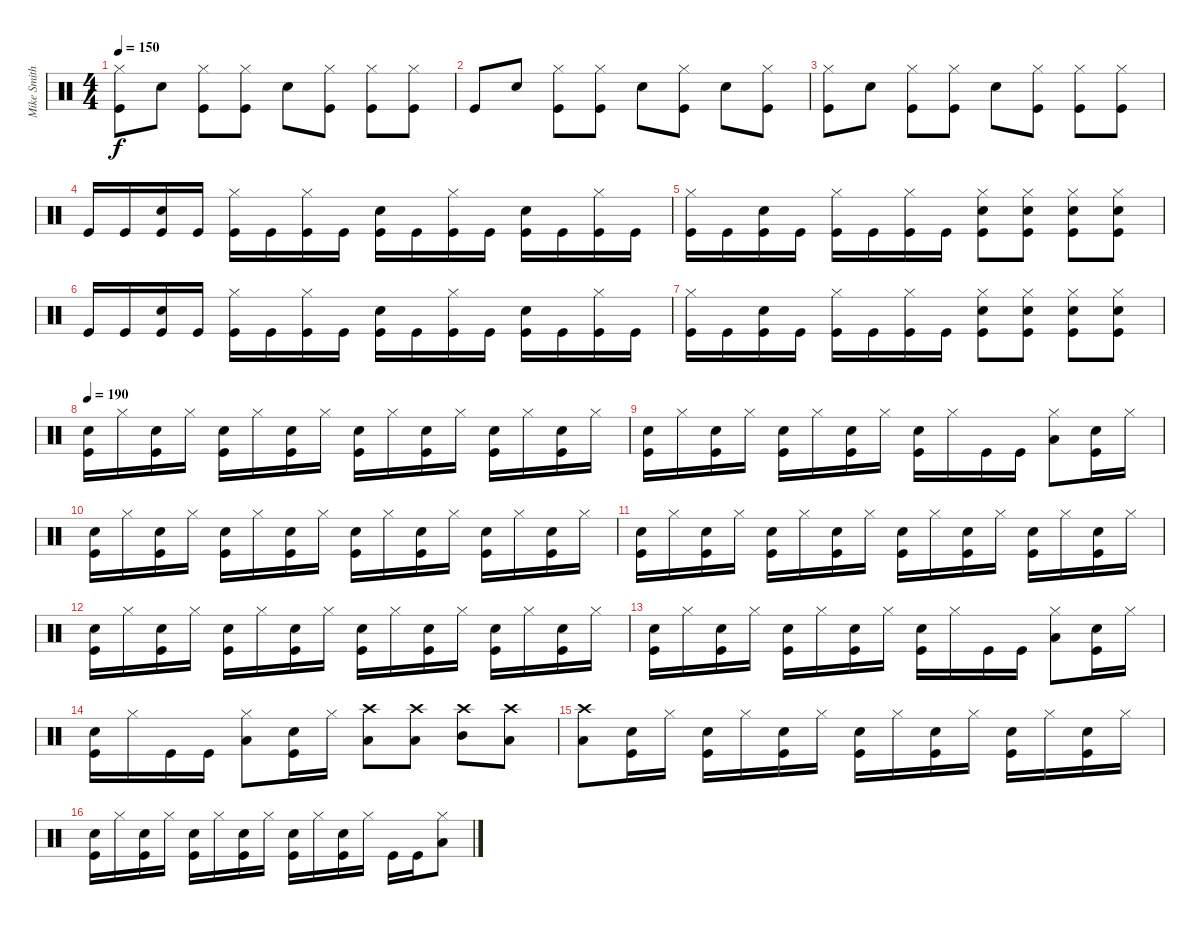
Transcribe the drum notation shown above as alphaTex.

\track ("Mike Smith" "Mike Smith") {instrument percussion}
\staff
\articulation defaults
\ts (4 4)
\tempo 150
\clef neutral
\ks c
("Hi-Hat (closed)" "Kick (hit)").8{dy f} "Snare (hit) 2".8 ("Hi-Hat (closed)" "Kick (hit)").8 ("Hi-Hat (closed)" "Kick (hit)").8 "Snare (hit) 2".8 ("Hi-Hat (closed)" "Kick (hit)").8 ("Hi-Hat (closed)" "Kick (hit)").8 ("Hi-Hat (closed)" "Kick (hit)").8 |
"Kick (hit)".8 "Snare (hit) 2".8 ("Hi-Hat (closed)" "Kick (hit)").8 ("Hi-Hat (closed)" "Kick (hit)").8 "Snare (hit) 2".8 ("Hi-Hat (closed)" "Kick (hit)").8 "Snare (hit) 2".8 ("Hi-Hat (closed)" "Kick (hit)").8 |
("Hi-Hat (closed)" "Kick (hit)").8 "Snare (hit) 2".8 ("Hi-Hat (closed)" "Kick (hit)").8 ("Hi-Hat (closed)" "Kick (hit)").8 "Snare (hit) 2".8 ("Hi-Hat (closed)" "Kick (hit)").8 ("Hi-Hat (closed)" "Kick (hit)").8 ("Hi-Hat (closed)" "Kick (hit)").8 |
"Kick (hit)".16 "Kick (hit)".16 ("Snare (hit) 2" "Kick (hit)").16 "Kick (hit)".16 ("Hi-Hat (closed)" "Kick (hit)").16 "Kick (hit)".16 ("Hi-Hat (closed)" "Kick (hit)").16 "Kick (hit)".16 ("Snare (hit) 2" "Kick (hit)").16 "Kick (hit)".16 ("Hi-Hat (closed)" "Kick (hit)").16 "Kick (hit)".16 ("Snare (hit) 2" "Kick (hit)").16 "Kick (hit)".16 ("Hi-Hat (closed)" "Kick (hit)").16 "Kick (hit)".16 |
("Hi-Hat (closed)" "Kick (hit)").16 "Kick (hit)".16 ("Snare (hit) 2" "Kick (hit)").16 "Kick (hit)".16 ("Hi-Hat (closed)" "Kick (hit)").16 "Kick (hit)".16 ("Hi-Hat (closed)" "Kick (hit)").16 "Kick (hit)".16 ("Hi-Hat (closed)" "Snare (hit) 2" "Kick (hit)").8 ("Hi-Hat (closed)" "Snare (hit) 2" "Kick (hit)").8 ("Hi-Hat (closed)" "Snare (hit) 2" "Kick (hit)").8 ("Hi-Hat (closed)" "Snare (hit) 2" "Kick (hit)").8 |
"Kick (hit)".16 "Kick (hit)".16 ("Snare (hit) 2" "Kick (hit)").16 "Kick (hit)".16 ("Hi-Hat (closed)" "Kick (hit)").16 "Kick (hit)".16 ("Hi-Hat (closed)" "Kick (hit)").16 "Kick (hit)".16 ("Snare (hit) 2" "Kick (hit)").16 "Kick (hit)".16 ("Hi-Hat (closed)" "Kick (hit)").16 "Kick (hit)".16 ("Snare (hit) 2" "Kick (hit)").16 "Kick (hit)".16 ("Hi-Hat (closed)" "Kick (hit)").16 "Kick (hit)".16 |
("Hi-Hat (closed)" "Kick (hit)").16 "Kick (hit)".16 ("Snare (hit) 2" "Kick (hit)").16 "Kick (hit)".16 ("Hi-Hat (closed)" "Kick (hit)").16 "Kick (hit)".16 ("Hi-Hat (closed)" "Kick (hit)").16 "Kick (hit)".16 ("Hi-Hat (closed)" "Snare (hit) 2" "Kick (hit)").8 ("Hi-Hat (closed)" "Snare (hit) 2" "Kick (hit)").8 ("Hi-Hat (closed)" "Snare (hit) 2" "Kick (hit)").8 ("Hi-Hat (closed)" "Snare (hit) 2" "Kick (hit)").8 |
\tempo 190
("Snare (hit) 2" "Kick (hit)").16 "Hi-Hat (closed)".16 ("Snare (hit) 2" "Kick (hit)").16 "Hi-Hat (closed)".16 ("Snare (hit) 2" "Kick (hit)").16 "Hi-Hat (closed)".16 ("Snare (hit) 2" "Kick (hit)").16 "Hi-Hat (closed)".16 ("Snare (hit) 2" "Kick (hit)").16 "Hi-Hat (closed)".16 ("Snare (hit) 2" "Kick (hit)").16 "Hi-Hat (closed)".16 ("Snare (hit) 2" "Kick (hit)").16 "Hi-Hat (closed)".16 ("Snare (hit) 2" "Kick (hit)").16 "Hi-Hat (closed)".16 |
("Snare (hit) 2" "Kick (hit)").16 "Hi-Hat (closed)".16 ("Snare (hit) 2" "Kick (hit)").16 "Hi-Hat (closed)".16 ("Snare (hit) 2" "Kick (hit)").16 "Hi-Hat (closed)".16 ("Snare (hit) 2" "Kick (hit)").16 "Hi-Hat (closed)".16 ("Snare (hit) 2" "Kick (hit)").16 "Hi-Hat (closed)".16 "Kick (hit)".16 "Kick (hit)".16 ("Hi-Hat (closed)" "Low Floor Tom (hit)").8 ("Snare (hit) 2" "Kick (hit)").16 "Hi-Hat (closed)".16 |
("Snare (hit) 2" "Kick (hit)").16 "Hi-Hat (closed)".16 ("Snare (hit) 2" "Kick (hit)").16 "Hi-Hat (closed)".16 ("Snare (hit) 2" "Kick (hit)").16 "Hi-Hat (closed)".16 ("Snare (hit) 2" "Kick (hit)").16 "Hi-Hat (closed)".16 ("Snare (hit) 2" "Kick (hit)").16 "Hi-Hat (closed)".16 ("Snare (hit) 2" "Kick (hit)").16 "Hi-Hat (closed)".16 ("Snare (hit) 2" "Kick (hit)").16 "Hi-Hat (closed)".16 ("Snare (hit) 2" "Kick (hit)").16 "Hi-Hat (closed)".16 |
("Snare (hit) 2" "Kick (hit)").16 "Hi-Hat (closed)".16 ("Snare (hit) 2" "Kick (hit)").16 "Hi-Hat (closed)".16 ("Snare (hit) 2" "Kick (hit)").16 "Hi-Hat (closed)".16 ("Snare (hit) 2" "Kick (hit)").16 "Hi-Hat (closed)".16 ("Snare (hit) 2" "Kick (hit)").16 "Hi-Hat (closed)".16 ("Snare (hit) 2" "Kick (hit)").16 "Hi-Hat (closed)".16 ("Snare (hit) 2" "Kick (hit)").16 "Hi-Hat (closed)".16 ("Snare (hit) 2" "Kick (hit)").16 "Hi-Hat (closed)".16 |
("Snare (hit) 2" "Kick (hit)").16 "Hi-Hat (closed)".16 ("Snare (hit) 2" "Kick (hit)").16 "Hi-Hat (closed)".16 ("Snare (hit) 2" "Kick (hit)").16 "Hi-Hat (closed)".16 ("Snare (hit) 2" "Kick (hit)").16 "Hi-Hat (closed)".16 ("Snare (hit) 2" "Kick (hit)").16 "Hi-Hat (closed)".16 ("Snare (hit) 2" "Kick (hit)").16 "Hi-Hat (closed)".16 ("Snare (hit) 2" "Kick (hit)").16 "Hi-Hat (closed)".16 ("Snare (hit) 2" "Kick (hit)").16 "Hi-Hat (closed)".16 |
("Snare (hit) 2" "Kick (hit)").16 "Hi-Hat (closed)".16 ("Snare (hit) 2" "Kick (hit)").16 "Hi-Hat (closed)".16 ("Snare (hit) 2" "Kick (hit)").16 "Hi-Hat (closed)".16 ("Snare (hit) 2" "Kick (hit)").16 "Hi-Hat (closed)".16 ("Snare (hit) 2" "Kick (hit)").16 "Hi-Hat (closed)".16 "Kick (hit)".16 "Kick (hit)".16 ("Hi-Hat (closed)" "Low Floor Tom (hit)").8 ("Snare (hit) 2" "Kick (hit)").16 "Hi-Hat (closed)".16 |
("Snare (hit) 2" "Kick (hit)").16 "Hi-Hat (closed)".16 "Kick (hit)".16 "Kick (hit)".16 ("Hi-Hat (closed)" "Low Floor Tom (hit)").8 ("Snare (hit) 2" "Kick (hit)").16 "Hi-Hat (closed)".16 ("Crash high (hit)" "Low Floor Tom (hit)").8 ("Crash high (hit)" "Low Tom (hit)").8 ("Crash high (hit)" "Mid Tom (hit)").8 ("Crash high (hit)" "Low Floor Tom (hit)").8 |
("Crash high (hit)" "Low Tom (hit)").8 ("Snare (hit) 2" "Kick (hit)").16 "Hi-Hat (closed)".16 ("Snare (hit) 2" "Kick (hit)").16 "Hi-Hat (closed)".16 ("Snare (hit) 2" "Kick (hit)").16 "Hi-Hat (closed)".16 ("Snare (hit) 2" "Kick (hit)").16 "Hi-Hat (closed)".16 ("Snare (hit) 2" "Kick (hit)").16 "Hi-Hat (closed)".16 ("Snare (hit) 2" "Kick (hit)").16 "Hi-Hat (closed)".16 ("Snare (hit) 2" "Kick (hit)").16 "Hi-Hat (closed)".16 |
("Snare (hit) 2" "Kick (hit)").16 "Hi-Hat (closed)".16 ("Snare (hit) 2" "Kick (hit)").16 "Hi-Hat (closed)".16 ("Snare (hit) 2" "Kick (hit)").16 "Hi-Hat (closed)".16 ("Snare (hit) 2" "Kick (hit)").16 "Hi-Hat (closed)".16 ("Snare (hit) 2" "Kick (hit)").16 "Hi-Hat (closed)".16 ("Snare (hit) 2" "Kick (hit)").16 "Hi-Hat (closed)".16 "Kick (hit)".16 "Kick (hit)".16 ("Hi-Hat (closed)" "Low Floor Tom (hit)").8
